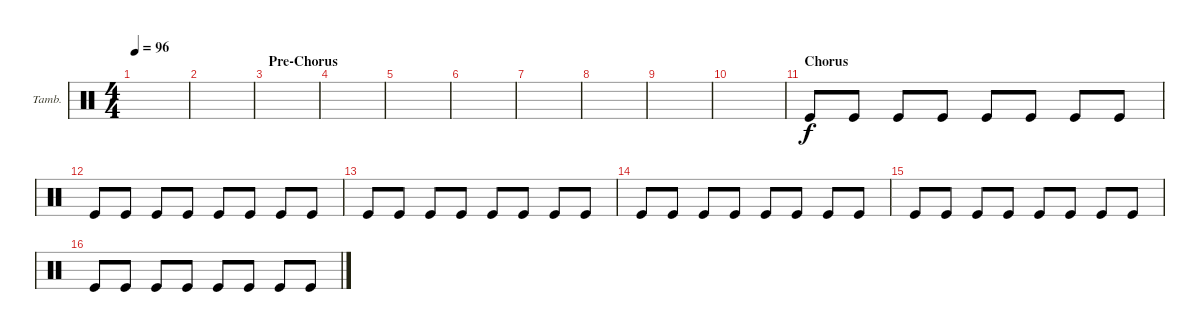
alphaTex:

\defaultSystemsLayout 4
\bracketExtendMode groupsimilarinstruments
\firstSystemTrackNameOrientation horizontal
\otherSystemsTrackNameOrientation horizontal
\track ("Tambourine" "Tamb.") {instrument percussion}
\staff {score}
\articulation defaults
\ts (4 4)
\tempo 96
\clef neutral
\ks c
|
|
\section ("" "Pre-Chorus")
|
|
|
|
|
|
|
|
\section ("" "Chorus")
"Kick (hit)".8 "Kick (hit)".8 "Kick (hit)".8 "Kick (hit)".8 "Kick (hit)".8 "Kick (hit)".8 "Kick (hit)".8 "Kick (hit)".8 |
"Kick (hit)".8 "Kick (hit)".8 "Kick (hit)".8 "Kick (hit)".8 "Kick (hit)".8 "Kick (hit)".8 "Kick (hit)".8 "Kick (hit)".8 |
"Kick (hit)".8 "Kick (hit)".8 "Kick (hit)".8 "Kick (hit)".8 "Kick (hit)".8 "Kick (hit)".8 "Kick (hit)".8 "Kick (hit)".8 |
"Kick (hit)".8 "Kick (hit)".8 "Kick (hit)".8 "Kick (hit)".8 "Kick (hit)".8 "Kick (hit)".8 "Kick (hit)".8 "Kick (hit)".8 |
"Kick (hit)".8 "Kick (hit)".8 "Kick (hit)".8 "Kick (hit)".8 "Kick (hit)".8 "Kick (hit)".8 "Kick (hit)".8 "Kick (hit)".8 |
"Kick (hit)".8 "Kick (hit)".8 "Kick (hit)".8 "Kick (hit)".8 "Kick (hit)".8 "Kick (hit)".8 "Kick (hit)".8 "Kick (hit)".8
